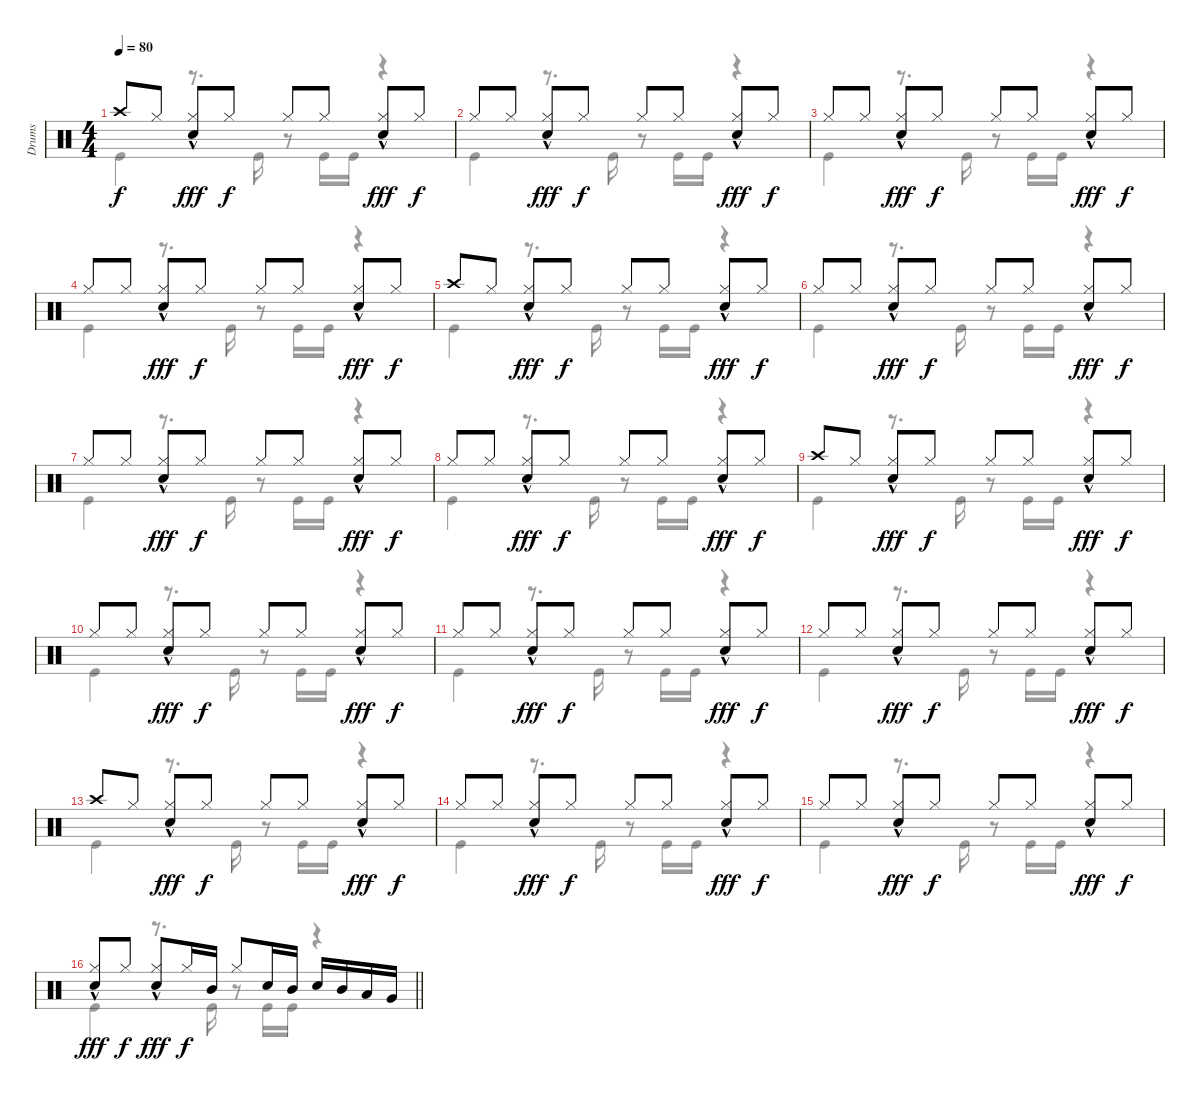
\track ("Drums" "Drums") {instrument percussion}
\staff {score}
\articulation defaults
\voice
\ts (4 4)
\tempo 80
\clef neutral
\ks c "Crash high (hit)".8{dy f} "Hi-Hat (closed)".8
("Hi-Hat (closed)" "Snare (hit) 2"{hac}).8{dy fff} "Hi-Hat (closed)".8{dy f} "Hi-Hat (closed)".8 "Hi-Hat (closed)".8 ("Hi-Hat (closed)" "Snare (hit) 2"{hac}).8{dy fff} "Hi-Hat (closed)".8{dy f} |
"Hi-Hat (closed)".8 "Hi-Hat (closed)".8 ("Hi-Hat (closed)" "Snare (hit) 2"{hac}).8{dy fff} "Hi-Hat (closed)".8{dy f} "Hi-Hat (closed)".8 "Hi-Hat (closed)".8 ("Hi-Hat (closed)" "Snare (hit) 2"{hac}).8{dy fff} "Hi-Hat (closed)".8{dy f} |
"Hi-Hat (closed)".8 "Hi-Hat (closed)".8 ("Hi-Hat (closed)" "Snare (hit) 2"{hac}).8{dy fff} "Hi-Hat (closed)".8{dy f} "Hi-Hat (closed)".8 "Hi-Hat (closed)".8 ("Hi-Hat (closed)" "Snare (hit) 2"{hac}).8{dy fff} "Hi-Hat (closed)".8{dy f} |
"Hi-Hat (closed)".8 "Hi-Hat (closed)".8 ("Hi-Hat (closed)" "Snare (hit) 2"{hac}).8{dy fff} "Hi-Hat (closed)".8{dy f} "Hi-Hat (closed)".8 "Hi-Hat (closed)".8 ("Hi-Hat (closed)" "Snare (hit) 2"{hac}).8{dy fff} "Hi-Hat (closed)".8{dy f} |
"Crash high (hit)".8 "Hi-Hat (closed)".8 ("Hi-Hat (closed)" "Snare (hit) 2"{hac}).8{dy fff} "Hi-Hat (closed)".8{dy f} "Hi-Hat (closed)".8 "Hi-Hat (closed)".8 ("Hi-Hat (closed)" "Snare (hit) 2"{hac}).8{dy fff} "Hi-Hat (closed)".8{dy f} |
"Hi-Hat (closed)".8 "Hi-Hat (closed)".8 ("Hi-Hat (closed)" "Snare (hit) 2"{hac}).8{dy fff} "Hi-Hat (closed)".8{dy f} "Hi-Hat (closed)".8 "Hi-Hat (closed)".8 ("Hi-Hat (closed)" "Snare (hit) 2"{hac}).8{dy fff} "Hi-Hat (closed)".8{dy f} |
"Hi-Hat (closed)".8 "Hi-Hat (closed)".8 ("Hi-Hat (closed)" "Snare (hit) 2"{hac}).8{dy fff} "Hi-Hat (closed)".8{dy f} "Hi-Hat (closed)".8 "Hi-Hat (closed)".8 ("Hi-Hat (closed)" "Snare (hit) 2"{hac}).8{dy fff} "Hi-Hat (closed)".8{dy f} |
"Hi-Hat (closed)".8 "Hi-Hat (closed)".8 ("Hi-Hat (closed)" "Snare (hit) 2"{hac}).8{dy fff} "Hi-Hat (closed)".8{dy f} "Hi-Hat (closed)".8 "Hi-Hat (closed)".8 ("Hi-Hat (closed)" "Snare (hit) 2"{hac}).8{dy fff} "Hi-Hat (closed)".8{dy f} |
"Crash high (hit)".8 "Hi-Hat (closed)".8 ("Hi-Hat (closed)" "Snare (hit) 2"{hac}).8{dy fff} "Hi-Hat (closed)".8{dy f} "Hi-Hat (closed)".8 "Hi-Hat (closed)".8 ("Hi-Hat (closed)" "Snare (hit) 2"{hac}).8{dy fff} "Hi-Hat (closed)".8{dy f} |
"Hi-Hat (closed)".8 "Hi-Hat (closed)".8 ("Hi-Hat (closed)" "Snare (hit) 2"{hac}).8{dy fff} "Hi-Hat (closed)".8{dy f} "Hi-Hat (closed)".8 "Hi-Hat (closed)".8 ("Hi-Hat (closed)" "Snare (hit) 2"{hac}).8{dy fff} "Hi-Hat (closed)".8{dy f} |
"Hi-Hat (closed)".8 "Hi-Hat (closed)".8 ("Hi-Hat (closed)" "Snare (hit) 2"{hac}).8{dy fff} "Hi-Hat (closed)".8{dy f} "Hi-Hat (closed)".8 "Hi-Hat (closed)".8 ("Hi-Hat (closed)" "Snare (hit) 2"{hac}).8{dy fff} "Hi-Hat (closed)".8{dy f} |
"Hi-Hat (closed)".8 "Hi-Hat (closed)".8 ("Hi-Hat (closed)" "Snare (hit) 2"{hac}).8{dy fff} "Hi-Hat (closed)".8{dy f} "Hi-Hat (closed)".8 "Hi-Hat (closed)".8 ("Hi-Hat (closed)" "Snare (hit) 2"{hac}).8{dy fff} "Hi-Hat (closed)".8{dy f} |
"Crash high (hit)".8 "Hi-Hat (closed)".8 ("Hi-Hat (closed)" "Snare (hit) 2"{hac}).8{dy fff} "Hi-Hat (closed)".8{dy f} "Hi-Hat (closed)".8 "Hi-Hat (closed)".8 ("Hi-Hat (closed)" "Snare (hit) 2"{hac}).8{dy fff} "Hi-Hat (closed)".8{dy f} |
"Hi-Hat (closed)".8 "Hi-Hat (closed)".8 ("Hi-Hat (closed)" "Snare (hit) 2"{hac}).8{dy fff} "Hi-Hat (closed)".8{dy f} "Hi-Hat (closed)".8 "Hi-Hat (closed)".8 ("Hi-Hat (closed)" "Snare (hit) 2"{hac}).8{dy fff} "Hi-Hat (closed)".8{dy f} |
"Hi-Hat (closed)".8 "Hi-Hat (closed)".8 ("Hi-Hat (closed)" "Snare (hit) 2"{hac}).8{dy fff} "Hi-Hat (closed)".8{dy f} "Hi-Hat (closed)".8 "Hi-Hat (closed)".8 ("Hi-Hat (closed)" "Snare (hit) 2"{hac}).8{dy fff} "Hi-Hat (closed)".8{dy f} |
\barLineRight lightlight
("Hi-Hat (closed)" "Snare (hit) 2"{hac}).8{dy fff} "Hi-Hat (closed)".8{dy f} ("Hi-Hat (closed)" "Snare (hit) 2"{hac}).8{dy fff} "Hi-Hat (closed)".16{dy f} "Mid Tom (hit)".16 "Hi-Hat (closed)".8 "Snare (hit) 2".16 "Mid Tom (hit)".16 "Snare (hit) 2".16 "Mid Tom (hit)".16 "Low Tom (hit)".16 "Very Low Tom (hit)".16
\voice
\clef neutral
\ottava regular
\simile none
\ks c "Kick (hit)".4{dy f}
r.8{d} "Kick (hit)".16 r.8 "Kick (hit)".16 "Kick (hit)".16 r.4 |
"Kick (hit)".4 r.8{d} "Kick (hit)".16 r.8 "Kick (hit)".16 "Kick (hit)".16 r.4 |
"Kick (hit)".4 r.8{d} "Kick (hit)".16 r.8 "Kick (hit)".16 "Kick (hit)".16 r.4 |
"Kick (hit)".4 r.8{d} "Kick (hit)".16 r.8 "Kick (hit)".16 "Kick (hit)".16 r.4 |
"Kick (hit)".4 r.8{d} "Kick (hit)".16 r.8 "Kick (hit)".16 "Kick (hit)".16 r.4 |
"Kick (hit)".4 r.8{d} "Kick (hit)".16 r.8 "Kick (hit)".16 "Kick (hit)".16 r.4 |
"Kick (hit)".4 r.8{d} "Kick (hit)".16 r.8 "Kick (hit)".16 "Kick (hit)".16 r.4 |
"Kick (hit)".4 r.8{d} "Kick (hit)".16 r.8 "Kick (hit)".16 "Kick (hit)".16 r.4 |
"Kick (hit)".4 r.8{d} "Kick (hit)".16 r.8 "Kick (hit)".16 "Kick (hit)".16 r.4 |
"Kick (hit)".4 r.8{d} "Kick (hit)".16 r.8 "Kick (hit)".16 "Kick (hit)".16 r.4 |
"Kick (hit)".4 r.8{d} "Kick (hit)".16 r.8 "Kick (hit)".16 "Kick (hit)".16 r.4 |
"Kick (hit)".4 r.8{d} "Kick (hit)".16 r.8 "Kick (hit)".16 "Kick (hit)".16 r.4 |
"Kick (hit)".4 r.8{d} "Kick (hit)".16 r.8 "Kick (hit)".16 "Kick (hit)".16 r.4 |
"Kick (hit)".4 r.8{d} "Kick (hit)".16 r.8 "Kick (hit)".16 "Kick (hit)".16 r.4 |
"Kick (hit)".4 r.8{d} "Kick (hit)".16 r.8 "Kick (hit)".16 "Kick (hit)".16 r.4 |
\barLineRight lightlight "Kick (hit)".4
r.8{d} "Kick (hit)".16 r.8 "Kick (hit)".16 "Kick (hit)".16 r.4
